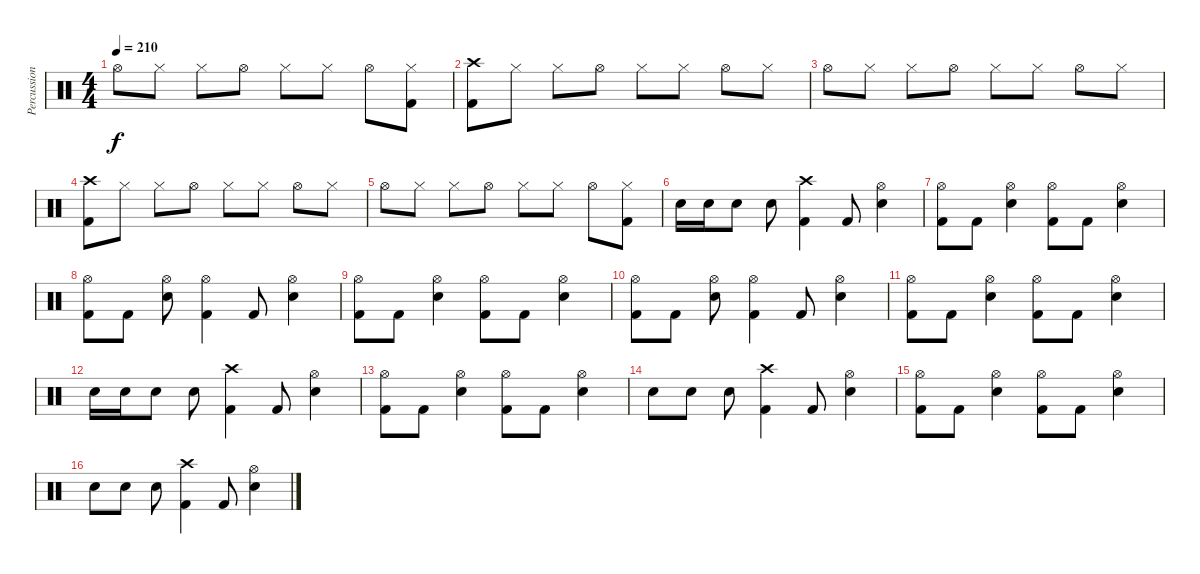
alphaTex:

\track ("Percussion" "Percussion") {instrument percussion}
\staff {score}
\articulation defaults
\ts (4 4)
\tempo 210
\clef neutral
\ks c "Hi-Hat (open)".8{dy f} "Hi-Hat (closed)".8 "Hi-Hat (closed)".8 "Hi-Hat (open)".8 "Hi-Hat (closed)".8 "Hi-Hat (closed)".8 "Hi-Hat (open)".8
("Hi-Hat (closed)" "Kick (hit) 2").8 |
("Crash high (hit)" "Kick (hit) 2").8 "Hi-Hat (closed)".8 "Hi-Hat (closed)".8 "Hi-Hat (open)".8 "Hi-Hat (closed)".8 "Hi-Hat (closed)".8 "Hi-Hat (open)".8 "Hi-Hat (closed)".8 |
"Hi-Hat (open)".8 "Hi-Hat (closed)".8 "Hi-Hat (closed)".8 "Hi-Hat (open)".8 "Hi-Hat (closed)".8 "Hi-Hat (closed)".8 "Hi-Hat (open)".8 "Hi-Hat (closed)".8 |
("Crash high (hit)" "Kick (hit) 2").8 "Hi-Hat (closed)".8 "Hi-Hat (closed)".8 "Hi-Hat (open)".8 "Hi-Hat (closed)".8 "Hi-Hat (closed)".8 "Hi-Hat (open)".8 "Hi-Hat (closed)".8 |
"Hi-Hat (open)".8 "Hi-Hat (closed)".8 "Hi-Hat (closed)".8 "Hi-Hat (open)".8 "Hi-Hat (closed)".8 "Hi-Hat (closed)".8 "Hi-Hat (open)".8 ("Hi-Hat (closed)" "Kick (hit) 2").8 |
"Snare (hit) 2".16 "Snare (hit) 2".16 "Snare (hit) 2".8 "Snare (hit) 2".8 ("Crash high (hit)" "Kick (hit) 2").4 "Kick (hit) 2".8 ("Hi-Hat (open)" "Snare (hit) 2").4 |
("Hi-Hat (open)" "Kick (hit) 2").8 "Kick (hit) 2".8 ("Hi-Hat (open)" "Snare (hit) 2").4 ("Hi-Hat (open)" "Kick (hit) 2").8 "Kick (hit) 2".8 ("Hi-Hat (open)" "Snare (hit) 2").4 |
("Hi-Hat (open)" "Kick (hit) 2").8 "Kick (hit) 2".8 ("Hi-Hat (open)" "Snare (hit) 2").8 ("Hi-Hat (open)" "Kick (hit) 2").4 "Kick (hit) 2".8 ("Hi-Hat (open)" "Snare (hit) 2").4 |
("Hi-Hat (open)" "Kick (hit) 2").8 "Kick (hit) 2".8 ("Hi-Hat (open)" "Snare (hit) 2").4 ("Hi-Hat (open)" "Kick (hit) 2").8 "Kick (hit) 2".8 ("Hi-Hat (open)" "Snare (hit) 2").4 |
("Hi-Hat (open)" "Kick (hit) 2").8 "Kick (hit) 2".8 ("Hi-Hat (open)" "Snare (hit) 2").8 ("Hi-Hat (open)" "Kick (hit) 2").4 "Kick (hit) 2".8 ("Hi-Hat (open)" "Snare (hit) 2").4 |
("Hi-Hat (open)" "Kick (hit) 2").8 "Kick (hit) 2".8 ("Hi-Hat (open)" "Snare (hit) 2").4 ("Hi-Hat (open)" "Kick (hit) 2").8 "Kick (hit) 2".8 ("Hi-Hat (open)" "Snare (hit) 2").4 |
"Snare (hit) 2".16 "Snare (hit) 2".16 "Snare (hit) 2".8 "Snare (hit) 2".8 ("Crash high (hit)" "Kick (hit) 2").4 "Kick (hit) 2".8 ("Hi-Hat (open)" "Snare (hit) 2").4 |
("Hi-Hat (open)" "Kick (hit) 2").8 "Kick (hit) 2".8 ("Hi-Hat (open)" "Snare (hit) 2").4 ("Hi-Hat (open)" "Kick (hit) 2").8 "Kick (hit) 2".8 ("Hi-Hat (open)" "Snare (hit) 2").4 |
"Snare (hit) 2".8 "Snare (hit) 2".8 "Snare (hit) 2".8 ("Crash high (hit)" "Kick (hit) 2").4 "Kick (hit) 2".8 ("Hi-Hat (open)" "Snare (hit) 2").4 |
("Hi-Hat (open)" "Kick (hit) 2").8 "Kick (hit) 2".8 ("Hi-Hat (open)" "Snare (hit) 2").4 ("Hi-Hat (open)" "Kick (hit) 2").8 "Kick (hit) 2".8 ("Hi-Hat (open)" "Snare (hit) 2").4 |
"Snare (hit) 2".8 "Snare (hit) 2".8 "Snare (hit) 2".8 ("Crash high (hit)" "Kick (hit) 2").4 "Kick (hit) 2".8 ("Hi-Hat (open)" "Snare (hit) 2").4
